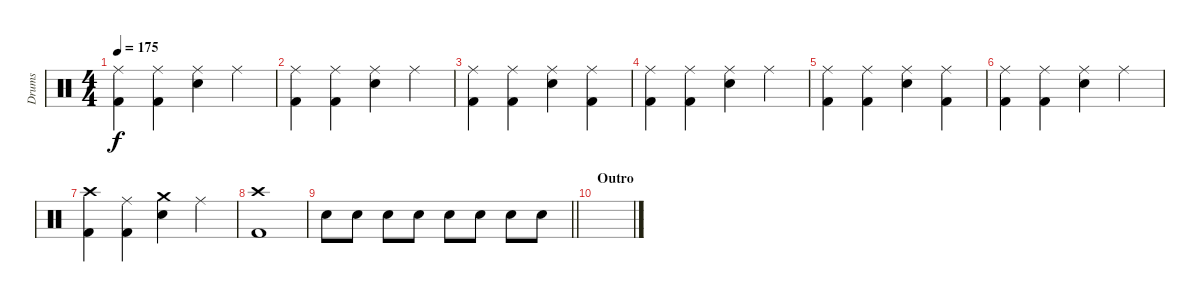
\track ("Drums" "Drums") {instrument percussion}
\staff {score}
\articulation defaults
\ts (4 4)
\tempo 175
\clef neutral
\ks c
("Ride (middle)" "Kick (hit) 2").4{dy f} ("Ride (middle)" "Kick (hit) 2").4 ("Ride (middle)" "Electric Snare (hit)").4 "Ride (middle)".4 |
("Ride (middle)" "Kick (hit) 2").4 ("Ride (middle)" "Kick (hit) 2").4 ("Ride (middle)" "Electric Snare (hit)").4 "Ride (middle)".4 |
("Ride (middle)" "Kick (hit) 2").4 ("Ride (middle)" "Kick (hit) 2").4 ("Ride (middle)" "Electric Snare (hit)").4 ("Ride (middle)" "Kick (hit) 2").4 |
("Ride (middle)" "Kick (hit) 2").4 ("Ride (middle)" "Kick (hit) 2").4 ("Ride (middle)" "Electric Snare (hit)").4 "Ride (middle)".4 |
("Ride (middle)" "Kick (hit) 2").4 ("Ride (middle)" "Kick (hit) 2").4 ("Ride (middle)" "Electric Snare (hit)").4 ("Ride (middle)" "Kick (hit) 2").4 |
("Ride (middle)" "Kick (hit) 2").4 ("Ride (middle)" "Kick (hit) 2").4 ("Ride (middle)" "Electric Snare (hit)").4 "Ride (middle)".4 |
("Crash high (hit)" "Kick (hit) 2").4 ("Ride (middle)" "Kick (hit) 2").4 ("Crash medium (hit)" "Electric Snare (hit)").4 "Ride (middle)".4 |
("Crash high (hit)" "Kick (hit) 2").1 |
\barLineRight lightlight "Electric Snare (hit)".8 "Electric Snare (hit)".8 "Electric Snare (hit)".8 "Electric Snare (hit)".8 "Electric Snare (hit)".8 "Electric Snare (hit)".8 "Electric Snare (hit)".8 "Electric Snare (hit)".8
|
\section ("" "Outro")
